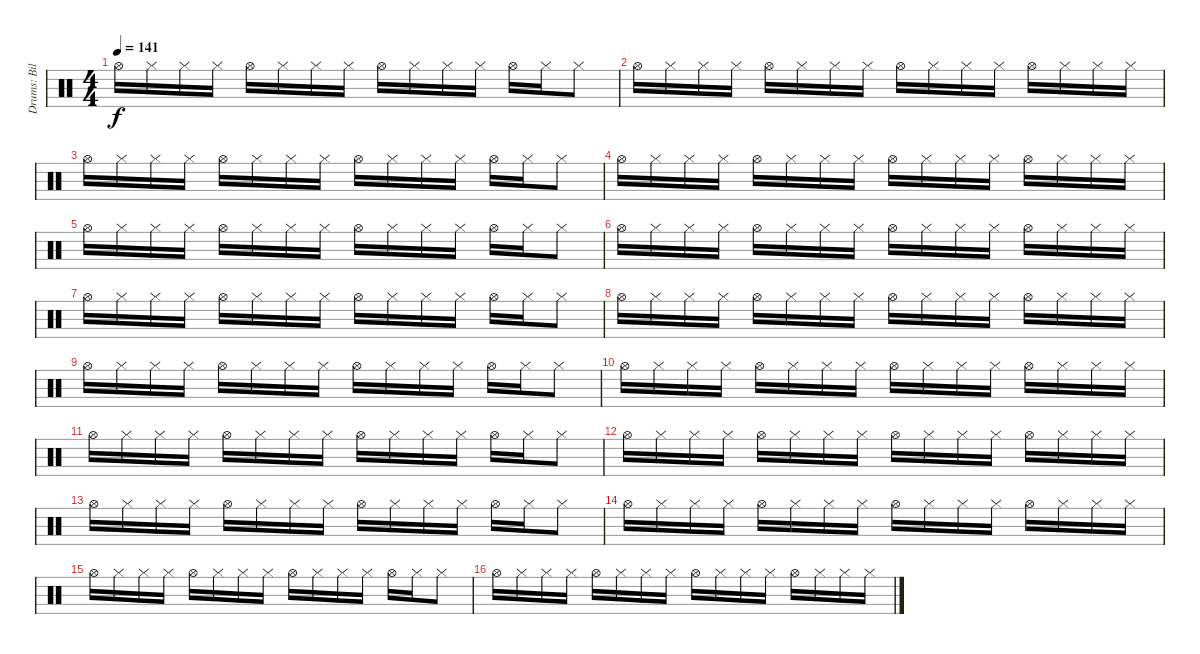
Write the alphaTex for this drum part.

\track ("Drums: Bill" "Drums: Bil") {instrument percussion}
\staff {score}
\articulation defaults
\ts (4 4)
\tempo 141
\clef neutral
\ks c "Hi-Hat (open)".16{dy f} "Hi-Hat (closed)".16 "Hi-Hat (closed)".16 "Hi-Hat (closed)".16 "Hi-Hat (open)".16 "Hi-Hat (closed)".16 "Hi-Hat (closed)".16 "Hi-Hat (closed)".16 "Hi-Hat (open)".16 "Hi-Hat (closed)".16 "Hi-Hat (closed)".16 "Hi-Hat (closed)".16 "Hi-Hat (open)".16 "Hi-Hat (closed)".16 "Hi-Hat (closed)".8
|
"Hi-Hat (open)".16 "Hi-Hat (closed)".16 "Hi-Hat (closed)".16 "Hi-Hat (closed)".16 "Hi-Hat (open)".16 "Hi-Hat (closed)".16 "Hi-Hat (closed)".16 "Hi-Hat (closed)".16 "Hi-Hat (open)".16 "Hi-Hat (closed)".16 "Hi-Hat (closed)".16 "Hi-Hat (closed)".16 "Hi-Hat (open)".16 "Hi-Hat (closed)".16 "Hi-Hat (closed)".16 "Hi-Hat (closed)".16 |
"Hi-Hat (open)".16 "Hi-Hat (closed)".16 "Hi-Hat (closed)".16 "Hi-Hat (closed)".16 "Hi-Hat (open)".16 "Hi-Hat (closed)".16 "Hi-Hat (closed)".16 "Hi-Hat (closed)".16 "Hi-Hat (open)".16 "Hi-Hat (closed)".16 "Hi-Hat (closed)".16 "Hi-Hat (closed)".16 "Hi-Hat (open)".16 "Hi-Hat (closed)".16 "Hi-Hat (closed)".8 |
"Hi-Hat (open)".16 "Hi-Hat (closed)".16 "Hi-Hat (closed)".16 "Hi-Hat (closed)".16 "Hi-Hat (open)".16 "Hi-Hat (closed)".16 "Hi-Hat (closed)".16 "Hi-Hat (closed)".16 "Hi-Hat (open)".16 "Hi-Hat (closed)".16 "Hi-Hat (closed)".16 "Hi-Hat (closed)".16 "Hi-Hat (open)".16 "Hi-Hat (closed)".16 "Hi-Hat (closed)".16 "Hi-Hat (closed)".16 |
"Hi-Hat (open)".16 "Hi-Hat (closed)".16 "Hi-Hat (closed)".16 "Hi-Hat (closed)".16 "Hi-Hat (open)".16 "Hi-Hat (closed)".16 "Hi-Hat (closed)".16 "Hi-Hat (closed)".16 "Hi-Hat (open)".16 "Hi-Hat (closed)".16 "Hi-Hat (closed)".16 "Hi-Hat (closed)".16 "Hi-Hat (open)".16 "Hi-Hat (closed)".16 "Hi-Hat (closed)".8 |
"Hi-Hat (open)".16 "Hi-Hat (closed)".16 "Hi-Hat (closed)".16 "Hi-Hat (closed)".16 "Hi-Hat (open)".16 "Hi-Hat (closed)".16 "Hi-Hat (closed)".16 "Hi-Hat (closed)".16 "Hi-Hat (open)".16 "Hi-Hat (closed)".16 "Hi-Hat (closed)".16 "Hi-Hat (closed)".16 "Hi-Hat (open)".16 "Hi-Hat (closed)".16 "Hi-Hat (closed)".16 "Hi-Hat (closed)".16 |
"Hi-Hat (open)".16 "Hi-Hat (closed)".16 "Hi-Hat (closed)".16 "Hi-Hat (closed)".16 "Hi-Hat (open)".16 "Hi-Hat (closed)".16 "Hi-Hat (closed)".16 "Hi-Hat (closed)".16 "Hi-Hat (open)".16 "Hi-Hat (closed)".16 "Hi-Hat (closed)".16 "Hi-Hat (closed)".16 "Hi-Hat (open)".16 "Hi-Hat (closed)".16 "Hi-Hat (closed)".8 |
"Hi-Hat (open)".16 "Hi-Hat (closed)".16 "Hi-Hat (closed)".16 "Hi-Hat (closed)".16 "Hi-Hat (open)".16 "Hi-Hat (closed)".16 "Hi-Hat (closed)".16 "Hi-Hat (closed)".16 "Hi-Hat (open)".16 "Hi-Hat (closed)".16 "Hi-Hat (closed)".16 "Hi-Hat (closed)".16 "Hi-Hat (open)".16 "Hi-Hat (closed)".16 "Hi-Hat (closed)".16 "Hi-Hat (closed)".16 |
"Hi-Hat (open)".16 "Hi-Hat (closed)".16 "Hi-Hat (closed)".16 "Hi-Hat (closed)".16 "Hi-Hat (open)".16 "Hi-Hat (closed)".16 "Hi-Hat (closed)".16 "Hi-Hat (closed)".16 "Hi-Hat (open)".16 "Hi-Hat (closed)".16 "Hi-Hat (closed)".16 "Hi-Hat (closed)".16 "Hi-Hat (open)".16 "Hi-Hat (closed)".16 "Hi-Hat (closed)".8 |
"Hi-Hat (open)".16 "Hi-Hat (closed)".16 "Hi-Hat (closed)".16 "Hi-Hat (closed)".16 "Hi-Hat (open)".16 "Hi-Hat (closed)".16 "Hi-Hat (closed)".16 "Hi-Hat (closed)".16 "Hi-Hat (open)".16 "Hi-Hat (closed)".16 "Hi-Hat (closed)".16 "Hi-Hat (closed)".16 "Hi-Hat (open)".16 "Hi-Hat (closed)".16 "Hi-Hat (closed)".16 "Hi-Hat (closed)".16 |
"Hi-Hat (open)".16 "Hi-Hat (closed)".16 "Hi-Hat (closed)".16 "Hi-Hat (closed)".16 "Hi-Hat (open)".16 "Hi-Hat (closed)".16 "Hi-Hat (closed)".16 "Hi-Hat (closed)".16 "Hi-Hat (open)".16 "Hi-Hat (closed)".16 "Hi-Hat (closed)".16 "Hi-Hat (closed)".16 "Hi-Hat (open)".16 "Hi-Hat (closed)".16 "Hi-Hat (closed)".8 |
"Hi-Hat (open)".16 "Hi-Hat (closed)".16 "Hi-Hat (closed)".16 "Hi-Hat (closed)".16 "Hi-Hat (open)".16 "Hi-Hat (closed)".16 "Hi-Hat (closed)".16 "Hi-Hat (closed)".16 "Hi-Hat (open)".16 "Hi-Hat (closed)".16 "Hi-Hat (closed)".16 "Hi-Hat (closed)".16 "Hi-Hat (open)".16 "Hi-Hat (closed)".16 "Hi-Hat (closed)".16 "Hi-Hat (closed)".16 |
"Hi-Hat (open)".16 "Hi-Hat (closed)".16 "Hi-Hat (closed)".16 "Hi-Hat (closed)".16 "Hi-Hat (open)".16 "Hi-Hat (closed)".16 "Hi-Hat (closed)".16 "Hi-Hat (closed)".16 "Hi-Hat (open)".16 "Hi-Hat (closed)".16 "Hi-Hat (closed)".16 "Hi-Hat (closed)".16 "Hi-Hat (open)".16 "Hi-Hat (closed)".16 "Hi-Hat (closed)".8 |
"Hi-Hat (open)".16 "Hi-Hat (closed)".16 "Hi-Hat (closed)".16 "Hi-Hat (closed)".16 "Hi-Hat (open)".16 "Hi-Hat (closed)".16 "Hi-Hat (closed)".16 "Hi-Hat (closed)".16 "Hi-Hat (open)".16 "Hi-Hat (closed)".16 "Hi-Hat (closed)".16 "Hi-Hat (closed)".16 "Hi-Hat (open)".16 "Hi-Hat (closed)".16 "Hi-Hat (closed)".16 "Hi-Hat (closed)".16 |
"Hi-Hat (open)".16 "Hi-Hat (closed)".16 "Hi-Hat (closed)".16 "Hi-Hat (closed)".16 "Hi-Hat (open)".16 "Hi-Hat (closed)".16 "Hi-Hat (closed)".16 "Hi-Hat (closed)".16 "Hi-Hat (open)".16 "Hi-Hat (closed)".16 "Hi-Hat (closed)".16 "Hi-Hat (closed)".16 "Hi-Hat (open)".16 "Hi-Hat (closed)".16 "Hi-Hat (closed)".8 |
"Hi-Hat (open)".16 "Hi-Hat (closed)".16 "Hi-Hat (closed)".16 "Hi-Hat (closed)".16 "Hi-Hat (open)".16 "Hi-Hat (closed)".16 "Hi-Hat (closed)".16 "Hi-Hat (closed)".16 "Hi-Hat (open)".16 "Hi-Hat (closed)".16 "Hi-Hat (closed)".16 "Hi-Hat (closed)".16 "Hi-Hat (open)".16 "Hi-Hat (closed)".16 "Hi-Hat (closed)".16 "Hi-Hat (closed)".16
